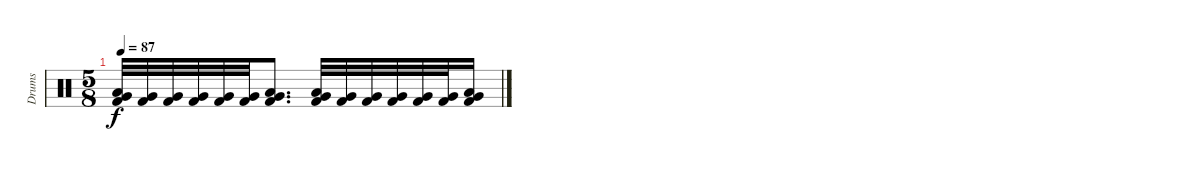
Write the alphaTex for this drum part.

\track ("Drums" "Drums") {instrument percussion}
\staff {score}
\articulation defaults
\ts (5 8)
\tempo 87
\clef neutral
\ks c
("Very Low Tom (hit)" "Low Floor Tom (hit)" "Kick (hit) 2").32{dy f} ("Very Low Tom (hit)" "Kick (hit) 2").32 ("Very Low Tom (hit)" "Kick (hit) 2").32 ("Very Low Tom (hit)" "Kick (hit) 2").32 ("Very Low Tom (hit)" "Kick (hit) 2").32 ("Very Low Tom (hit)" "Kick (hit) 2").32 ("Very Low Tom (hit)" "Low Floor Tom (hit)" "Kick (hit) 2").8{d} ("Very Low Tom (hit)" "Low Floor Tom (hit)" "Kick (hit) 2").32 ("Very Low Tom (hit)" "Kick (hit) 2").32 ("Very Low Tom (hit)" "Kick (hit) 2").32 ("Very Low Tom (hit)" "Kick (hit) 2").32 ("Very Low Tom (hit)" "Kick (hit) 2").32 ("Very Low Tom (hit)" "Kick (hit) 2").32 ("Very Low Tom (hit)" "Low Floor Tom (hit)" "Kick (hit) 2").16
